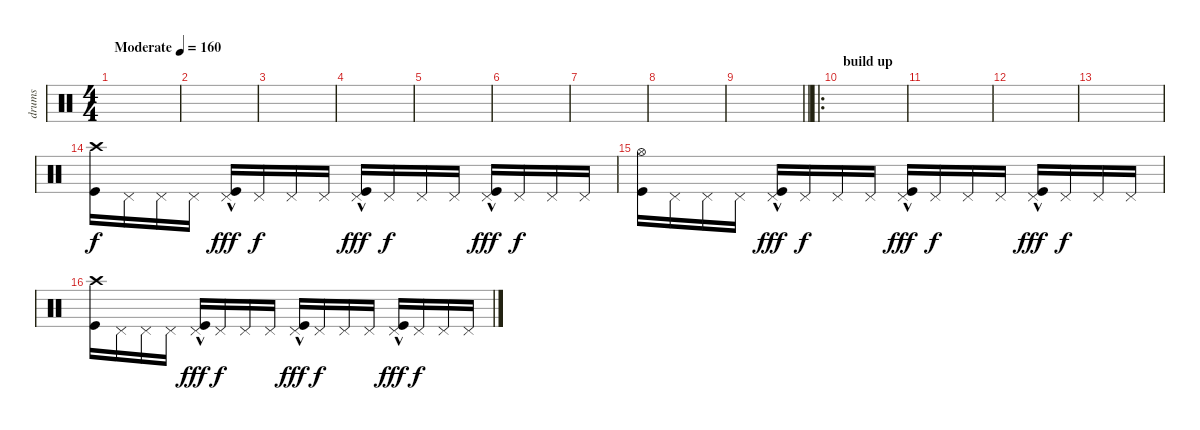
\track ("drums" "drums") {instrument percussion}
\staff {score}
\articulation defaults
\ts (4 4)
\tempo (160 "Moderate")
\clef neutral
\ks c
|
|
|
|
|
|
|
|
\barLineRight lightlight
|
\ro
\section ("" "build up")
|
|
|
|
("Crash high (hit)" "Kick (hit)").16 "Pedal Hi-Hat (hit)".16 "Pedal Hi-Hat (hit)".16 "Pedal Hi-Hat (hit)".16 ("Pedal Hi-Hat (hit)"{hac} "Kick (hit)").16{dy fff} "Pedal Hi-Hat (hit)".16{dy f} "Pedal Hi-Hat (hit)".16 "Pedal Hi-Hat (hit)".16 ("Pedal Hi-Hat (hit)"{hac} "Kick (hit)").16{dy fff} "Pedal Hi-Hat (hit)".16{dy f} "Pedal Hi-Hat (hit)".16 "Pedal Hi-Hat (hit)".16 ("Pedal Hi-Hat (hit)"{hac} "Kick (hit)").16{dy fff} "Pedal Hi-Hat (hit)".16{dy f} "Pedal Hi-Hat (hit)".16 "Pedal Hi-Hat (hit)".16 |
("Hi-Hat (open)" "Kick (hit)").16 "Pedal Hi-Hat (hit)".16 "Pedal Hi-Hat (hit)".16 "Pedal Hi-Hat (hit)".16 ("Pedal Hi-Hat (hit)"{hac} "Kick (hit)").16{dy fff} "Pedal Hi-Hat (hit)".16{dy f} "Pedal Hi-Hat (hit)".16 "Pedal Hi-Hat (hit)".16 ("Pedal Hi-Hat (hit)"{hac} "Kick (hit)").16{dy fff} "Pedal Hi-Hat (hit)".16{dy f} "Pedal Hi-Hat (hit)".16 "Pedal Hi-Hat (hit)".16 ("Pedal Hi-Hat (hit)"{hac} "Kick (hit)").16{dy fff} "Pedal Hi-Hat (hit)".16{dy f} "Pedal Hi-Hat (hit)".16 "Pedal Hi-Hat (hit)".16 |
("Crash high (hit)" "Kick (hit)").16 "Pedal Hi-Hat (hit)".16 "Pedal Hi-Hat (hit)".16 "Pedal Hi-Hat (hit)".16 ("Pedal Hi-Hat (hit)"{hac} "Kick (hit)").16{dy fff} "Pedal Hi-Hat (hit)".16{dy f} "Pedal Hi-Hat (hit)".16 "Pedal Hi-Hat (hit)".16 ("Pedal Hi-Hat (hit)"{hac} "Kick (hit)").16{dy fff} "Pedal Hi-Hat (hit)".16{dy f} "Pedal Hi-Hat (hit)".16 "Pedal Hi-Hat (hit)".16 ("Pedal Hi-Hat (hit)"{hac} "Kick (hit)").16{dy fff} "Pedal Hi-Hat (hit)".16{dy f} "Pedal Hi-Hat (hit)".16 "Pedal Hi-Hat (hit)".16
